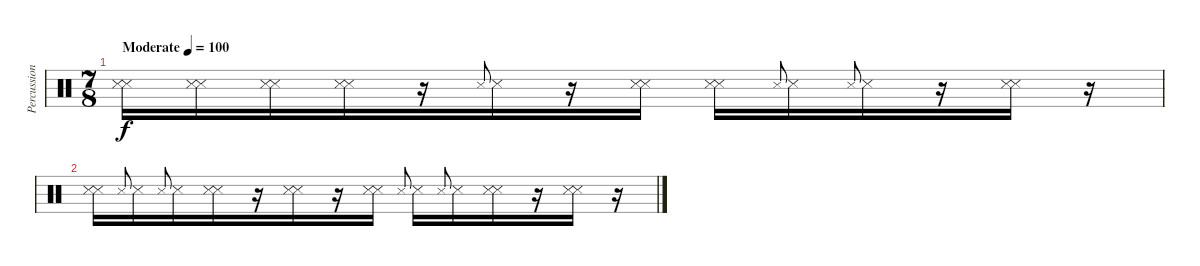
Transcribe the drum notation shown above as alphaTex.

\track ("Percussion" "Percussion") {instrument percussion}
\staff {score}
\articulation defaults
\ts (7 8)
\tempo (100 "Moderate")
\clef neutral
\ks c
("Metronome (hit)" "Metronome (hit)").16{dy f} ("Metronome (hit)" "Metronome (hit)").16 ("Metronome (hit)" "Metronome (hit)").16 ("Metronome (hit)" "Metronome (hit)").16 r.16 "Metronome (hit)".8{gr onbeat} "Metronome (hit)".16 r.16 ("Metronome (hit)" "Metronome (hit)").16 ("Metronome (hit)" "Metronome (hit)").16 "Metronome (hit)".8{gr onbeat} "Metronome (hit)".16 "Metronome (hit)".8{gr onbeat} "Metronome (hit)".16 r.16 ("Metronome (hit)" "Metronome (hit)").16 r.16 |
("Metronome (hit)" "Metronome (hit)").16 "Metronome (hit)".8{gr onbeat} "Metronome (hit)".16 "Metronome (hit)".8{gr onbeat} "Metronome (hit)".16 ("Metronome (hit)" "Metronome (hit)").16 r.16 ("Metronome (hit)" "Metronome (hit)").16 r.16 ("Metronome (hit)" "Metronome (hit)").16 "Metronome (hit)".8{gr onbeat} "Metronome (hit)".16 "Metronome (hit)".8{gr onbeat} "Metronome (hit)".16 ("Metronome (hit)" "Metronome (hit)").16 r.16 ("Metronome (hit)" "Metronome (hit)").16 r.16
